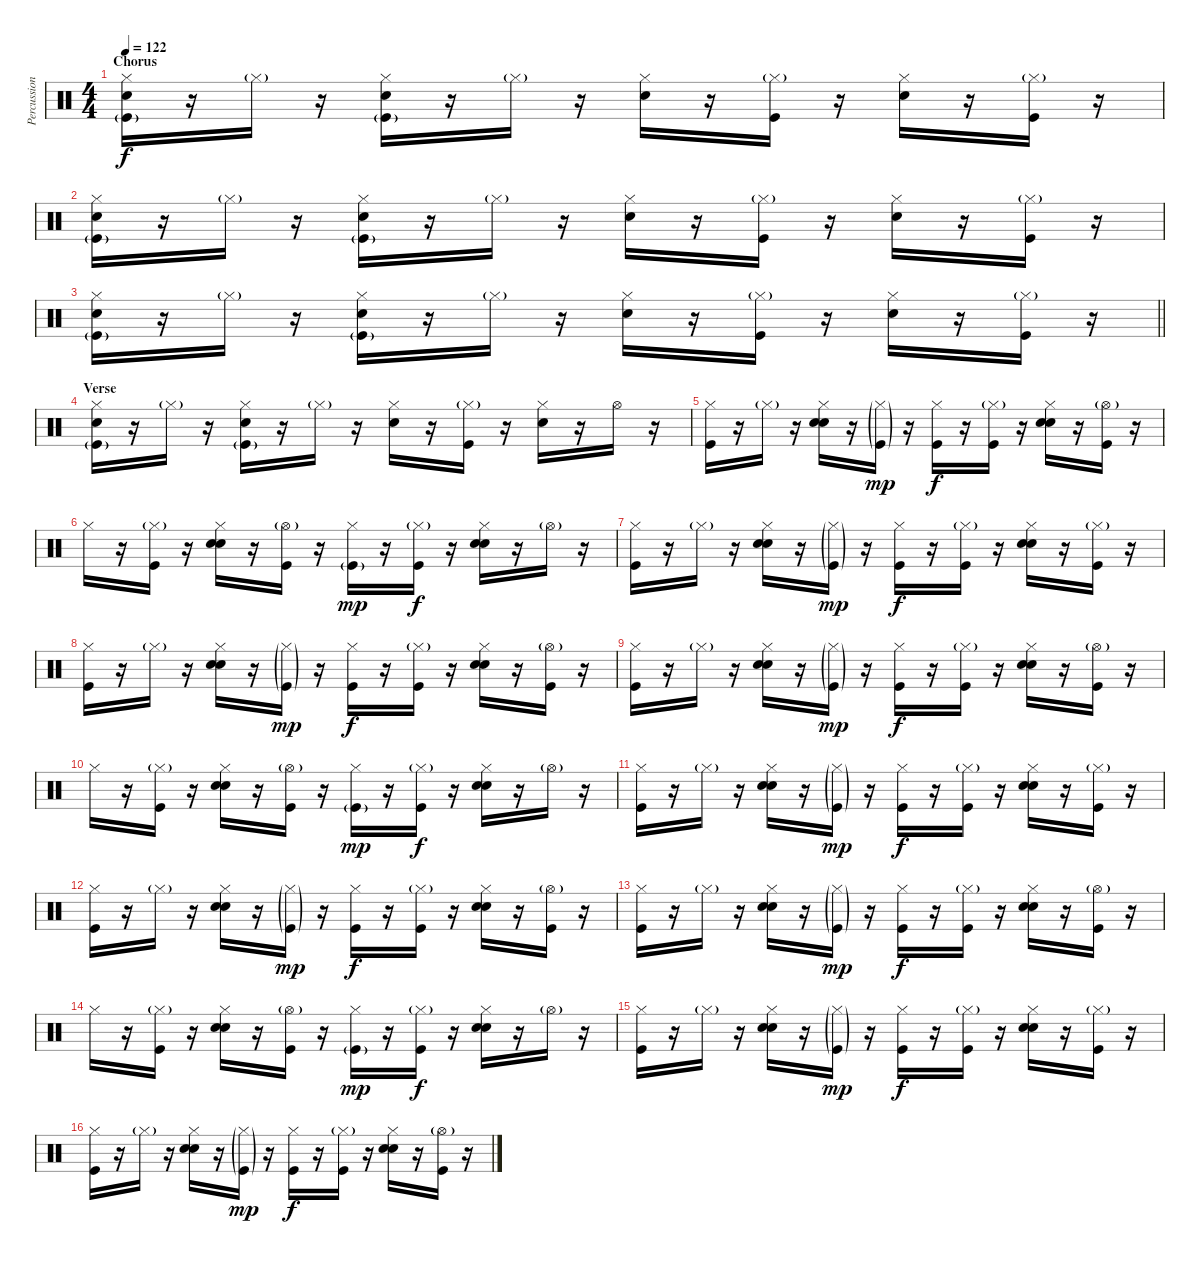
\track ("Percussion" "Percussion") {instrument percussion bank 177}
\staff {score}
\articulation defaults
\ts (4 4)
\section ("" "Chorus")
\tempo 122
\clef neutral
\ks c
("Hi-Hat (closed)" "Snare (hit) 2" "Kick (hit)"{g}).16{dy f} r.16 "Hi-Hat (closed)"{g}.16 r.16 ("Hi-Hat (closed)" "Snare (hit) 2" "Kick (hit)"{g}).16 r.16 "Hi-Hat (closed)"{g}.16 r.16 ("Hi-Hat (closed)" "Snare (hit) 2").16 r.16 ("Hi-Hat (closed)"{g} "Kick (hit)").16 r.16 ("Hi-Hat (closed)" "Snare (hit) 2").16 r.16 ("Hi-Hat (closed)"{g} "Kick (hit)").16 r.16 |
("Hi-Hat (closed)" "Snare (hit) 2" "Kick (hit)"{g}).16 r.16 "Hi-Hat (closed)"{g}.16 r.16 ("Hi-Hat (closed)" "Snare (hit) 2" "Kick (hit)"{g}).16 r.16 "Hi-Hat (closed)"{g}.16 r.16 ("Hi-Hat (closed)" "Snare (hit) 2").16 r.16 ("Hi-Hat (closed)"{g} "Kick (hit)").16 r.16 ("Hi-Hat (closed)" "Snare (hit) 2").16 r.16 ("Hi-Hat (closed)"{g} "Kick (hit)").16 r.16 |
\barLineRight lightlight
("Hi-Hat (closed)" "Snare (hit) 2" "Kick (hit)"{g}).16 r.16 "Hi-Hat (closed)"{g}.16 r.16 ("Hi-Hat (closed)" "Snare (hit) 2" "Kick (hit)"{g}).16 r.16 "Hi-Hat (closed)"{g}.16 r.16 ("Hi-Hat (closed)" "Snare (hit) 2").16 r.16 ("Hi-Hat (closed)"{g} "Kick (hit)").16 r.16 ("Hi-Hat (closed)" "Snare (hit) 2").16 r.16 ("Hi-Hat (closed)"{g} "Kick (hit)").16 r.16 |
\section ("" "Verse")
("Hi-Hat (closed)" "Snare (hit) 2" "Kick (hit)"{g}).16 r.16 "Hi-Hat (closed)"{g}.16 r.16 ("Hi-Hat (closed)" "Snare (hit) 2" "Kick (hit)"{g}).16 r.16 "Hi-Hat (closed)"{g}.16 r.16 ("Hi-Hat (closed)" "Snare (hit) 2").16 r.16 ("Hi-Hat (closed)"{g} "Kick (hit)").16 r.16 ("Hi-Hat (closed)" "Snare (hit) 2").16 r.16 "Hi-Hat (open)".16 r.16 |
("Hi-Hat (closed)" "Kick (hit)").16 r.16 "Hi-Hat (closed)"{g}.16 r.16 ("Hi-Hat (closed)" "Hand Clap (hit)" "Snare (hit) 2").16 r.16 ("Hi-Hat (closed)"{g} "Kick (hit)"{g}).16{dy mp} r.16 ("Hi-Hat (closed)" "Kick (hit)").16{dy f} r.16 ("Hi-Hat (closed)"{g} "Kick (hit)").16 r.16 ("Hi-Hat (closed)" "Hand Clap (hit)" "Snare (hit) 2").16 r.16 ("Hi-Hat (open)"{g} "Kick (hit)").16 r.16 |
"Hi-Hat (closed)".16 r.16 ("Hi-Hat (closed)"{g} "Kick (hit)").16 r.16 ("Hi-Hat (closed)" "Hand Clap (hit)" "Snare (hit) 2").16 r.16 ("Hi-Hat (open)"{g} "Kick (hit)").16 r.16 ("Hi-Hat (closed)" "Kick (hit)"{g}).16{dy mp} r.16 ("Hi-Hat (closed)"{g} "Kick (hit)").16{dy f} r.16 ("Hi-Hat (closed)" "Hand Clap (hit)" "Snare (hit) 2").16 r.16 "Hi-Hat (open)"{g}.16 r.16 |
("Hi-Hat (closed)" "Kick (hit)").16 r.16 "Hi-Hat (closed)"{g}.16 r.16 ("Hi-Hat (closed)" "Hand Clap (hit)" "Snare (hit) 2").16 r.16 ("Hi-Hat (closed)"{g} "Kick (hit)"{g}).16{dy mp} r.16 ("Hi-Hat (closed)" "Kick (hit)").16{dy f} r.16 ("Hi-Hat (closed)"{g} "Kick (hit)").16 r.16 ("Hi-Hat (closed)" "Hand Clap (hit)" "Snare (hit) 2").16 r.16 ("Hi-Hat (closed)"{g} "Kick (hit)").16 r.16 |
("Hi-Hat (closed)" "Kick (hit)").16 r.16 "Hi-Hat (closed)"{g}.16 r.16 ("Hi-Hat (closed)" "Hand Clap (hit)" "Snare (hit) 2").16 r.16 ("Hi-Hat (closed)"{g} "Kick (hit)"{g}).16{dy mp} r.16 ("Hi-Hat (closed)" "Kick (hit)").16{dy f} r.16 ("Hi-Hat (closed)"{g} "Kick (hit)").16 r.16 ("Hi-Hat (closed)" "Hand Clap (hit)" "Snare (hit) 2").16 r.16 ("Hi-Hat (open)"{g} "Kick (hit)").16 r.16 |
("Hi-Hat (closed)" "Kick (hit)").16 r.16 "Hi-Hat (closed)"{g}.16 r.16 ("Hi-Hat (closed)" "Hand Clap (hit)" "Snare (hit) 2").16 r.16 ("Hi-Hat (closed)"{g} "Kick (hit)"{g}).16{dy mp} r.16 ("Hi-Hat (closed)" "Kick (hit)").16{dy f} r.16 ("Hi-Hat (closed)"{g} "Kick (hit)").16 r.16 ("Hi-Hat (closed)" "Hand Clap (hit)" "Snare (hit) 2").16 r.16 ("Hi-Hat (open)"{g} "Kick (hit)").16 r.16 |
"Hi-Hat (closed)".16 r.16 ("Hi-Hat (closed)"{g} "Kick (hit)").16 r.16 ("Hi-Hat (closed)" "Hand Clap (hit)" "Snare (hit) 2").16 r.16 ("Hi-Hat (open)"{g} "Kick (hit)").16 r.16 ("Hi-Hat (closed)" "Kick (hit)"{g}).16{dy mp} r.16 ("Hi-Hat (closed)"{g} "Kick (hit)").16{dy f} r.16 ("Hi-Hat (closed)" "Hand Clap (hit)" "Snare (hit) 2").16 r.16 "Hi-Hat (open)"{g}.16 r.16 |
("Hi-Hat (closed)" "Kick (hit)").16 r.16 "Hi-Hat (closed)"{g}.16 r.16 ("Hi-Hat (closed)" "Hand Clap (hit)" "Snare (hit) 2").16 r.16 ("Hi-Hat (closed)"{g} "Kick (hit)"{g}).16{dy mp} r.16 ("Hi-Hat (closed)" "Kick (hit)").16{dy f} r.16 ("Hi-Hat (closed)"{g} "Kick (hit)").16 r.16 ("Hi-Hat (closed)" "Hand Clap (hit)" "Snare (hit) 2").16 r.16 ("Hi-Hat (closed)"{g} "Kick (hit)").16 r.16 |
("Hi-Hat (closed)" "Kick (hit)").16 r.16 "Hi-Hat (closed)"{g}.16 r.16 ("Hi-Hat (closed)" "Hand Clap (hit)" "Snare (hit) 2").16 r.16 ("Hi-Hat (closed)"{g} "Kick (hit)"{g}).16{dy mp} r.16 ("Hi-Hat (closed)" "Kick (hit)").16{dy f} r.16 ("Hi-Hat (closed)"{g} "Kick (hit)").16 r.16 ("Hi-Hat (closed)" "Hand Clap (hit)" "Snare (hit) 2").16 r.16 ("Hi-Hat (open)"{g} "Kick (hit)").16 r.16 |
("Hi-Hat (closed)" "Kick (hit)").16 r.16 "Hi-Hat (closed)"{g}.16 r.16 ("Hi-Hat (closed)" "Hand Clap (hit)" "Snare (hit) 2").16 r.16 ("Hi-Hat (closed)"{g} "Kick (hit)"{g}).16{dy mp} r.16 ("Hi-Hat (closed)" "Kick (hit)").16{dy f} r.16 ("Hi-Hat (closed)"{g} "Kick (hit)").16 r.16 ("Hi-Hat (closed)" "Hand Clap (hit)" "Snare (hit) 2").16 r.16 ("Hi-Hat (open)"{g} "Kick (hit)").16 r.16 |
"Hi-Hat (closed)".16 r.16 ("Hi-Hat (closed)"{g} "Kick (hit)").16 r.16 ("Hi-Hat (closed)" "Hand Clap (hit)" "Snare (hit) 2").16 r.16 ("Hi-Hat (open)"{g} "Kick (hit)").16 r.16 ("Hi-Hat (closed)" "Kick (hit)"{g}).16{dy mp} r.16 ("Hi-Hat (closed)"{g} "Kick (hit)").16{dy f} r.16 ("Hi-Hat (closed)" "Hand Clap (hit)" "Snare (hit) 2").16 r.16 "Hi-Hat (open)"{g}.16 r.16 |
("Hi-Hat (closed)" "Kick (hit)").16 r.16 "Hi-Hat (closed)"{g}.16 r.16 ("Hi-Hat (closed)" "Hand Clap (hit)" "Snare (hit) 2").16 r.16 ("Hi-Hat (closed)"{g} "Kick (hit)"{g}).16{dy mp} r.16 ("Hi-Hat (closed)" "Kick (hit)").16{dy f} r.16 ("Hi-Hat (closed)"{g} "Kick (hit)").16 r.16 ("Hi-Hat (closed)" "Hand Clap (hit)" "Snare (hit) 2").16 r.16 ("Hi-Hat (closed)"{g} "Kick (hit)").16 r.16 |
("Hi-Hat (closed)" "Kick (hit)").16 r.16 "Hi-Hat (closed)"{g}.16 r.16 ("Hi-Hat (closed)" "Hand Clap (hit)" "Snare (hit) 2").16 r.16 ("Hi-Hat (closed)"{g} "Kick (hit)"{g}).16{dy mp} r.16 ("Hi-Hat (closed)" "Kick (hit)").16{dy f} r.16 ("Hi-Hat (closed)"{g} "Kick (hit)").16 r.16 ("Hi-Hat (closed)" "Hand Clap (hit)" "Snare (hit) 2").16 r.16 ("Hi-Hat (open)"{g} "Kick (hit)").16 r.16
